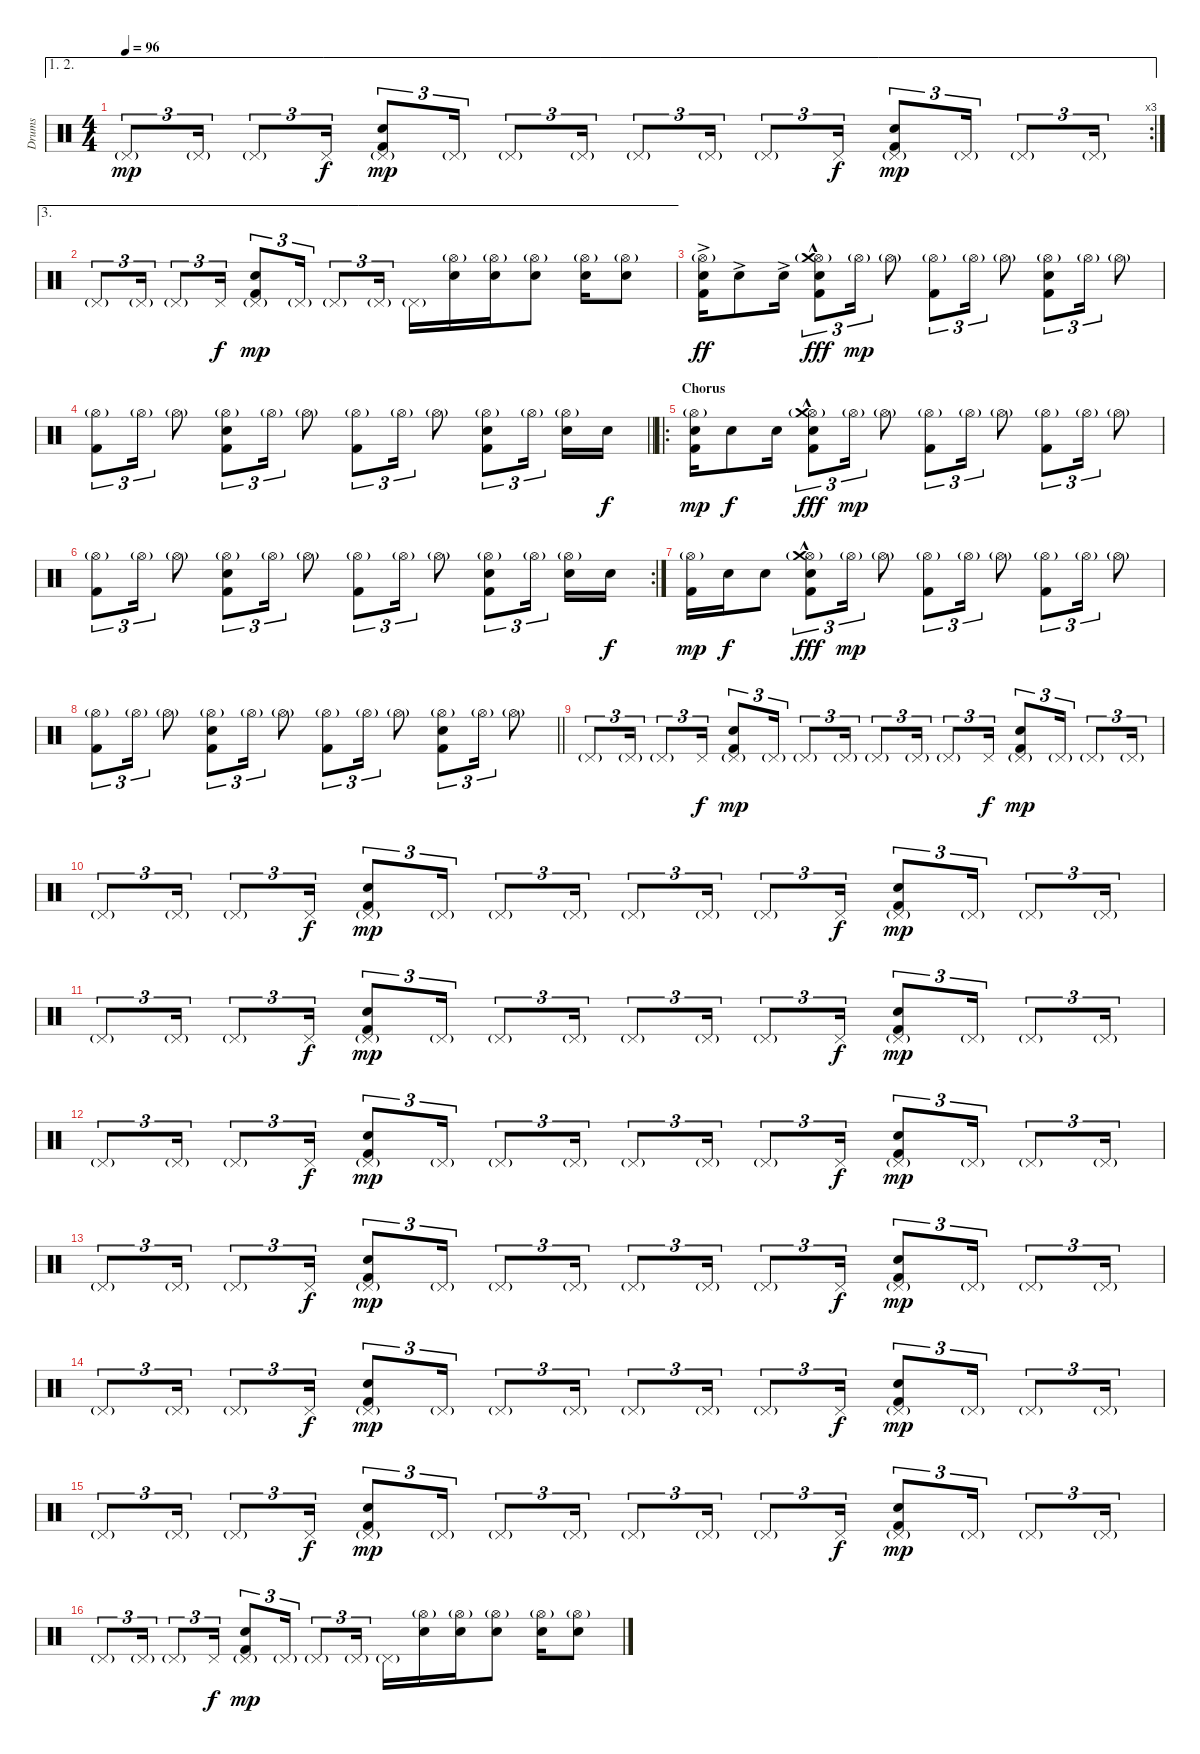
\track ("Drums" "Drums") {instrument percussion}
\staff {score}
\articulation defaults
\ae (1 2)
\rc 3
\ts (4 4)
\tempo 96
\clef neutral
\ks c "Pedal Hi-Hat (hit)"{g}.8{tu (3 2) dy mp} "Pedal Hi-Hat (hit)"{g}.16{tu (3 2)} "Pedal Hi-Hat (hit)"{g}.8{tu (3 2)} "Pedal Hi-Hat (hit)".16{tu (3 2) dy f}
("Pedal Hi-Hat (hit)"{g} "Electric Snare (hit)" "Kick (hit) 2").8{tu (3 2) dy mp} "Pedal Hi-Hat (hit)"{g}.16{tu (3 2)} "Pedal Hi-Hat (hit)"{g}.8{tu (3 2)} "Pedal Hi-Hat (hit)"{g}.16{tu (3 2)} "Pedal Hi-Hat (hit)"{g}.8{tu (3 2)} "Pedal Hi-Hat (hit)"{g}.16{tu (3 2)} "Pedal Hi-Hat (hit)"{g}.8{tu (3 2)} "Pedal Hi-Hat (hit)".16{tu (3 2) dy f} ("Pedal Hi-Hat (hit)"{g} "Electric Snare (hit)" "Kick (hit) 2").8{tu (3 2) dy mp} "Pedal Hi-Hat (hit)"{g}.16{tu (3 2)} "Pedal Hi-Hat (hit)"{g}.8{tu (3 2)} "Pedal Hi-Hat (hit)"{g}.16{tu (3 2)} |
\ae 3 "Pedal Hi-Hat (hit)"{g}.8{tu (3 2)} "Pedal Hi-Hat (hit)"{g}.16{tu (3 2)} "Pedal Hi-Hat (hit)"{g}.8{tu (3 2)} "Pedal Hi-Hat (hit)".16{tu (3 2) dy f}
("Pedal Hi-Hat (hit)"{g} "Electric Snare (hit)" "Kick (hit) 2").8{tu (3 2) dy mp} "Pedal Hi-Hat (hit)"{g}.16{tu (3 2)} "Pedal Hi-Hat (hit)"{g}.8{tu (3 2)} "Pedal Hi-Hat (hit)"{g}.16{tu (3 2)} "Pedal Hi-Hat (hit)"{g}.16 ("Hi-Hat (open)"{g} "Electric Snare (hit)").16 ("Hi-Hat (open)"{g} "Electric Snare (hit)").16 ("Hi-Hat (open)"{g} "Electric Snare (hit)").8 ("Hi-Hat (open)"{g} "Electric Snare (hit)").16 ("Hi-Hat (open)"{g} "Electric Snare (hit)").8 |
("Hi-Hat (open)"{g} "Electric Snare (hit)"{ac} "Kick (hit) 2").16{dy ff} "Electric Snare (hit)"{ac}.8 "Electric Snare (hit)"{ac}.16 ("Hi-Hat (open)"{g} "Crash medium (hit)"{hac} "Electric Snare (hit)"{hac} "Kick (hit) 2").8{tu (3 2) dy fff} "Hi-Hat (open)"{g}.16{tu (3 2) dy mp} "Hi-Hat (open)"{g}.8 ("Hi-Hat (open)"{g} "Kick (hit) 2").8{tu (3 2)} "Hi-Hat (open)"{g}.16{tu (3 2)} "Hi-Hat (open)"{g}.8 ("Hi-Hat (open)"{g} "Electric Snare (hit)" "Kick (hit) 2").8{tu (3 2)} "Hi-Hat (open)"{g}.16{tu (3 2)} "Hi-Hat (open)"{g}.8 |
\barLineRight lightlight
("Hi-Hat (open)"{g} "Kick (hit) 2").8{tu (3 2)} "Hi-Hat (open)"{g}.16{tu (3 2)} "Hi-Hat (open)"{g}.8 ("Hi-Hat (open)"{g} "Electric Snare (hit)" "Kick (hit) 2").8{tu (3 2)} "Hi-Hat (open)"{g}.16{tu (3 2)} "Hi-Hat (open)"{g}.8 ("Hi-Hat (open)"{g} "Kick (hit) 2").8{tu (3 2)} "Hi-Hat (open)"{g}.16{tu (3 2)} "Hi-Hat (open)"{g}.8 ("Hi-Hat (open)"{g} "Electric Snare (hit)" "Kick (hit) 2").8{tu (3 2)} "Hi-Hat (open)"{g}.16{tu (3 2) beam splitsecondary} ("Hi-Hat (open)"{g} "Electric Snare (hit)").16 "Electric Snare (hit)".16{dy f} |
\ro
\section ("" "Chorus")
("Hi-Hat (open)"{g} "Electric Snare (hit)" "Kick (hit) 2").16{dy mp} "Electric Snare (hit)".8{dy f} "Electric Snare (hit)".16 ("Hi-Hat (open)"{g} "Crash medium (hit)"{hac} "Electric Snare (hit)"{hac} "Kick (hit) 2").8{tu (3 2) dy fff} "Hi-Hat (open)"{g}.16{tu (3 2) dy mp} "Hi-Hat (open)"{g}.8 ("Hi-Hat (open)"{g} "Kick (hit) 2").8{tu (3 2)} "Hi-Hat (open)"{g}.16{tu (3 2)} "Hi-Hat (open)"{g}.8 ("Hi-Hat (open)"{g} "Kick (hit) 2").8{tu (3 2)} "Hi-Hat (open)"{g}.16{tu (3 2)} "Hi-Hat (open)"{g}.8 |
\rc 2
("Hi-Hat (open)"{g} "Kick (hit) 2").8{tu (3 2)} "Hi-Hat (open)"{g}.16{tu (3 2)} "Hi-Hat (open)"{g}.8 ("Hi-Hat (open)"{g} "Electric Snare (hit)" "Kick (hit) 2").8{tu (3 2)} "Hi-Hat (open)"{g}.16{tu (3 2)} "Hi-Hat (open)"{g}.8 ("Hi-Hat (open)"{g} "Kick (hit) 2").8{tu (3 2)} "Hi-Hat (open)"{g}.16{tu (3 2)} "Hi-Hat (open)"{g}.8 ("Hi-Hat (open)"{g} "Electric Snare (hit)" "Kick (hit) 2").8{tu (3 2)} "Hi-Hat (open)"{g}.16{tu (3 2) beam splitsecondary} ("Hi-Hat (open)"{g} "Electric Snare (hit)").16 "Electric Snare (hit)".16{dy f} |
("Hi-Hat (open)"{g} "Kick (hit) 2").16{dy mp} "Electric Snare (hit)".16{dy f} "Electric Snare (hit)".8 ("Hi-Hat (open)"{g} "Crash medium (hit)"{hac} "Electric Snare (hit)"{hac} "Kick (hit) 2").8{tu (3 2) dy fff} "Hi-Hat (open)"{g}.16{tu (3 2) dy mp} "Hi-Hat (open)"{g}.8 ("Hi-Hat (open)"{g} "Kick (hit) 2").8{tu (3 2)} "Hi-Hat (open)"{g}.16{tu (3 2)} "Hi-Hat (open)"{g}.8 ("Hi-Hat (open)"{g} "Kick (hit) 2").8{tu (3 2)} "Hi-Hat (open)"{g}.16{tu (3 2)} "Hi-Hat (open)"{g}.8 |
\barLineRight lightlight
("Hi-Hat (open)"{g} "Kick (hit) 2").8{tu (3 2)} "Hi-Hat (open)"{g}.16{tu (3 2)} "Hi-Hat (open)"{g}.8 ("Hi-Hat (open)"{g} "Electric Snare (hit)" "Kick (hit) 2").8{tu (3 2)} "Hi-Hat (open)"{g}.16{tu (3 2)} "Hi-Hat (open)"{g}.8 ("Hi-Hat (open)"{g} "Kick (hit) 2").8{tu (3 2)} "Hi-Hat (open)"{g}.16{tu (3 2)} "Hi-Hat (open)"{g}.8 ("Hi-Hat (open)"{g} "Electric Snare (hit)" "Kick (hit) 2").8{tu (3 2)} "Hi-Hat (open)"{g}.16{tu (3 2)} "Hi-Hat (open)"{g}.8 |
"Pedal Hi-Hat (hit)"{g}.8{tu (3 2)} "Pedal Hi-Hat (hit)"{g}.16{tu (3 2)} "Pedal Hi-Hat (hit)"{g}.8{tu (3 2)} "Pedal Hi-Hat (hit)".16{tu (3 2) dy f} ("Pedal Hi-Hat (hit)"{g} "Electric Snare (hit)" "Kick (hit) 2").8{tu (3 2) dy mp} "Pedal Hi-Hat (hit)"{g}.16{tu (3 2)} "Pedal Hi-Hat (hit)"{g}.8{tu (3 2)} "Pedal Hi-Hat (hit)"{g}.16{tu (3 2)} "Pedal Hi-Hat (hit)"{g}.8{tu (3 2)} "Pedal Hi-Hat (hit)"{g}.16{tu (3 2)} "Pedal Hi-Hat (hit)"{g}.8{tu (3 2)} "Pedal Hi-Hat (hit)".16{tu (3 2) dy f} ("Pedal Hi-Hat (hit)"{g} "Electric Snare (hit)" "Kick (hit) 2").8{tu (3 2) dy mp} "Pedal Hi-Hat (hit)"{g}.16{tu (3 2)} "Pedal Hi-Hat (hit)"{g}.8{tu (3 2)} "Pedal Hi-Hat (hit)"{g}.16{tu (3 2)} |
"Pedal Hi-Hat (hit)"{g}.8{tu (3 2)} "Pedal Hi-Hat (hit)"{g}.16{tu (3 2)} "Pedal Hi-Hat (hit)"{g}.8{tu (3 2)} "Pedal Hi-Hat (hit)".16{tu (3 2) dy f} ("Pedal Hi-Hat (hit)"{g} "Electric Snare (hit)" "Kick (hit) 2").8{tu (3 2) dy mp} "Pedal Hi-Hat (hit)"{g}.16{tu (3 2)} "Pedal Hi-Hat (hit)"{g}.8{tu (3 2)} "Pedal Hi-Hat (hit)"{g}.16{tu (3 2)} "Pedal Hi-Hat (hit)"{g}.8{tu (3 2)} "Pedal Hi-Hat (hit)"{g}.16{tu (3 2)} "Pedal Hi-Hat (hit)"{g}.8{tu (3 2)} "Pedal Hi-Hat (hit)".16{tu (3 2) dy f} ("Pedal Hi-Hat (hit)"{g} "Electric Snare (hit)" "Kick (hit) 2").8{tu (3 2) dy mp} "Pedal Hi-Hat (hit)"{g}.16{tu (3 2)} "Pedal Hi-Hat (hit)"{g}.8{tu (3 2)} "Pedal Hi-Hat (hit)"{g}.16{tu (3 2)} |
"Pedal Hi-Hat (hit)"{g}.8{tu (3 2)} "Pedal Hi-Hat (hit)"{g}.16{tu (3 2)} "Pedal Hi-Hat (hit)"{g}.8{tu (3 2)} "Pedal Hi-Hat (hit)".16{tu (3 2) dy f} ("Pedal Hi-Hat (hit)"{g} "Electric Snare (hit)" "Kick (hit) 2").8{tu (3 2) dy mp} "Pedal Hi-Hat (hit)"{g}.16{tu (3 2)} "Pedal Hi-Hat (hit)"{g}.8{tu (3 2)} "Pedal Hi-Hat (hit)"{g}.16{tu (3 2)} "Pedal Hi-Hat (hit)"{g}.8{tu (3 2)} "Pedal Hi-Hat (hit)"{g}.16{tu (3 2)} "Pedal Hi-Hat (hit)"{g}.8{tu (3 2)} "Pedal Hi-Hat (hit)".16{tu (3 2) dy f} ("Pedal Hi-Hat (hit)"{g} "Electric Snare (hit)" "Kick (hit) 2").8{tu (3 2) dy mp} "Pedal Hi-Hat (hit)"{g}.16{tu (3 2)} "Pedal Hi-Hat (hit)"{g}.8{tu (3 2)} "Pedal Hi-Hat (hit)"{g}.16{tu (3 2)} |
"Pedal Hi-Hat (hit)"{g}.8{tu (3 2)} "Pedal Hi-Hat (hit)"{g}.16{tu (3 2)} "Pedal Hi-Hat (hit)"{g}.8{tu (3 2)} "Pedal Hi-Hat (hit)".16{tu (3 2) dy f} ("Pedal Hi-Hat (hit)"{g} "Electric Snare (hit)" "Kick (hit) 2").8{tu (3 2) dy mp} "Pedal Hi-Hat (hit)"{g}.16{tu (3 2)} "Pedal Hi-Hat (hit)"{g}.8{tu (3 2)} "Pedal Hi-Hat (hit)"{g}.16{tu (3 2)} "Pedal Hi-Hat (hit)"{g}.8{tu (3 2)} "Pedal Hi-Hat (hit)"{g}.16{tu (3 2)} "Pedal Hi-Hat (hit)"{g}.8{tu (3 2)} "Pedal Hi-Hat (hit)".16{tu (3 2) dy f} ("Pedal Hi-Hat (hit)"{g} "Electric Snare (hit)" "Kick (hit) 2").8{tu (3 2) dy mp} "Pedal Hi-Hat (hit)"{g}.16{tu (3 2)} "Pedal Hi-Hat (hit)"{g}.8{tu (3 2)} "Pedal Hi-Hat (hit)"{g}.16{tu (3 2)} |
"Pedal Hi-Hat (hit)"{g}.8{tu (3 2)} "Pedal Hi-Hat (hit)"{g}.16{tu (3 2)} "Pedal Hi-Hat (hit)"{g}.8{tu (3 2)} "Pedal Hi-Hat (hit)".16{tu (3 2) dy f} ("Pedal Hi-Hat (hit)"{g} "Electric Snare (hit)" "Kick (hit) 2").8{tu (3 2) dy mp} "Pedal Hi-Hat (hit)"{g}.16{tu (3 2)} "Pedal Hi-Hat (hit)"{g}.8{tu (3 2)} "Pedal Hi-Hat (hit)"{g}.16{tu (3 2)} "Pedal Hi-Hat (hit)"{g}.8{tu (3 2)} "Pedal Hi-Hat (hit)"{g}.16{tu (3 2)} "Pedal Hi-Hat (hit)"{g}.8{tu (3 2)} "Pedal Hi-Hat (hit)".16{tu (3 2) dy f} ("Pedal Hi-Hat (hit)"{g} "Electric Snare (hit)" "Kick (hit) 2").8{tu (3 2) dy mp} "Pedal Hi-Hat (hit)"{g}.16{tu (3 2)} "Pedal Hi-Hat (hit)"{g}.8{tu (3 2)} "Pedal Hi-Hat (hit)"{g}.16{tu (3 2)} |
"Pedal Hi-Hat (hit)"{g}.8{tu (3 2)} "Pedal Hi-Hat (hit)"{g}.16{tu (3 2)} "Pedal Hi-Hat (hit)"{g}.8{tu (3 2)} "Pedal Hi-Hat (hit)".16{tu (3 2) dy f} ("Pedal Hi-Hat (hit)"{g} "Electric Snare (hit)" "Kick (hit) 2").8{tu (3 2) dy mp} "Pedal Hi-Hat (hit)"{g}.16{tu (3 2)} "Pedal Hi-Hat (hit)"{g}.8{tu (3 2)} "Pedal Hi-Hat (hit)"{g}.16{tu (3 2)} "Pedal Hi-Hat (hit)"{g}.8{tu (3 2)} "Pedal Hi-Hat (hit)"{g}.16{tu (3 2)} "Pedal Hi-Hat (hit)"{g}.8{tu (3 2)} "Pedal Hi-Hat (hit)".16{tu (3 2) dy f} ("Pedal Hi-Hat (hit)"{g} "Electric Snare (hit)" "Kick (hit) 2").8{tu (3 2) dy mp} "Pedal Hi-Hat (hit)"{g}.16{tu (3 2)} "Pedal Hi-Hat (hit)"{g}.8{tu (3 2)} "Pedal Hi-Hat (hit)"{g}.16{tu (3 2)} |
"Pedal Hi-Hat (hit)"{g}.8{tu (3 2)} "Pedal Hi-Hat (hit)"{g}.16{tu (3 2)} "Pedal Hi-Hat (hit)"{g}.8{tu (3 2)} "Pedal Hi-Hat (hit)".16{tu (3 2) dy f} ("Pedal Hi-Hat (hit)"{g} "Electric Snare (hit)" "Kick (hit) 2").8{tu (3 2) dy mp} "Pedal Hi-Hat (hit)"{g}.16{tu (3 2)} "Pedal Hi-Hat (hit)"{g}.8{tu (3 2)} "Pedal Hi-Hat (hit)"{g}.16{tu (3 2)} "Pedal Hi-Hat (hit)"{g}.8{tu (3 2)} "Pedal Hi-Hat (hit)"{g}.16{tu (3 2)} "Pedal Hi-Hat (hit)"{g}.8{tu (3 2)} "Pedal Hi-Hat (hit)".16{tu (3 2) dy f} ("Pedal Hi-Hat (hit)"{g} "Electric Snare (hit)" "Kick (hit) 2").8{tu (3 2) dy mp} "Pedal Hi-Hat (hit)"{g}.16{tu (3 2)} "Pedal Hi-Hat (hit)"{g}.8{tu (3 2)} "Pedal Hi-Hat (hit)"{g}.16{tu (3 2)} |
"Pedal Hi-Hat (hit)"{g}.8{tu (3 2)} "Pedal Hi-Hat (hit)"{g}.16{tu (3 2)} "Pedal Hi-Hat (hit)"{g}.8{tu (3 2)} "Pedal Hi-Hat (hit)".16{tu (3 2) dy f} ("Pedal Hi-Hat (hit)"{g} "Electric Snare (hit)" "Kick (hit) 2").8{tu (3 2) dy mp} "Pedal Hi-Hat (hit)"{g}.16{tu (3 2)} "Pedal Hi-Hat (hit)"{g}.8{tu (3 2)} "Pedal Hi-Hat (hit)"{g}.16{tu (3 2)} "Pedal Hi-Hat (hit)"{g}.16 ("Hi-Hat (open)"{g} "Electric Snare (hit)").16 ("Hi-Hat (open)"{g} "Electric Snare (hit)").16 ("Hi-Hat (open)"{g} "Electric Snare (hit)").8 ("Hi-Hat (open)"{g} "Electric Snare (hit)").16 ("Hi-Hat (open)"{g} "Electric Snare (hit)").8
